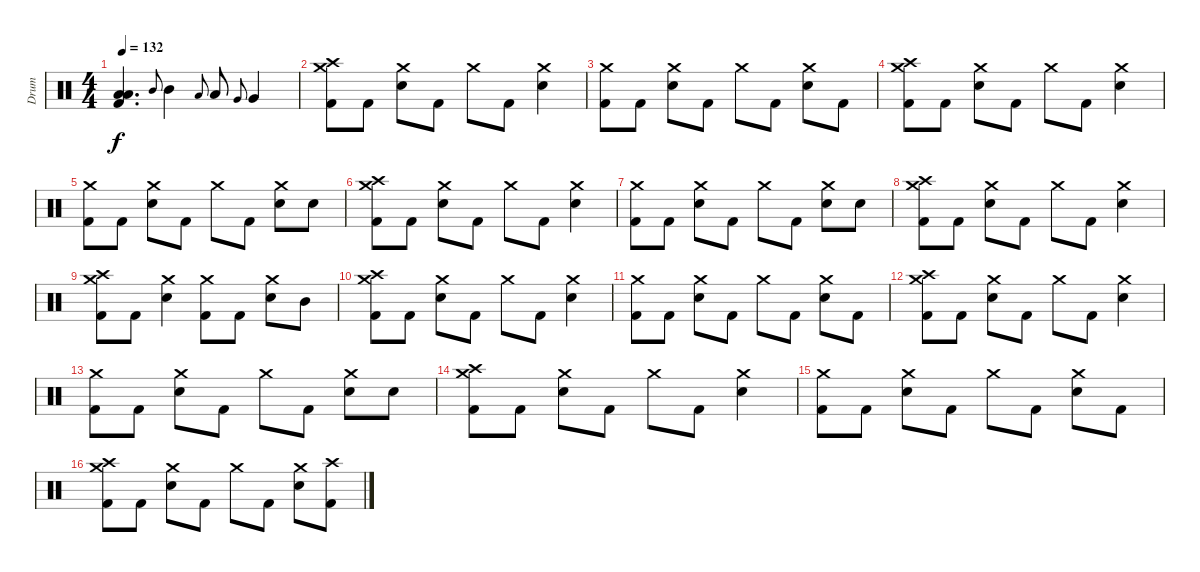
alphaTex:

\track ("Drum" "Drum") {instrument percussion}
\staff {score}
\articulation defaults
\ts (4 4)
\tempo 132
\clef neutral
\ks c
("Low Floor Tom (hit)" "Low Floor Tom (hit)" "Kick (hit) 2").4{d dy f} "Mid Tom (hit)".8{gr onbeat} "Mid Tom (hit)".4 "Low Tom (hit)".8{gr onbeat} "Low Tom (hit)".8 "Very Low Tom (hit)".8{gr onbeat} "Very Low Tom (hit)".4 |
("Crash medium (hit)" "Crash high (hit)" "Kick (hit) 2").8 "Kick (hit) 2".8 ("Crash medium (hit)" "Snare (hit) 2").8 "Kick (hit) 2".8 "Crash medium (hit)".8 "Kick (hit) 2".8 ("Crash medium (hit)" "Snare (hit) 2").4 |
("Crash medium (hit)" "Kick (hit) 2").8 "Kick (hit) 2".8 ("Crash medium (hit)" "Snare (hit) 2").8 "Kick (hit) 2".8 "Crash medium (hit)".8 "Kick (hit) 2".8 ("Crash medium (hit)" "Snare (hit) 2").8 "Kick (hit) 2".8 |
("Crash medium (hit)" "Crash high (hit)" "Kick (hit) 2").8 "Kick (hit) 2".8 ("Crash medium (hit)" "Snare (hit) 2").8 "Kick (hit) 2".8 "Crash medium (hit)".8 "Kick (hit) 2".8 ("Crash medium (hit)" "Snare (hit) 2").4 |
("Crash medium (hit)" "Kick (hit) 2").8 "Kick (hit) 2".8 ("Crash medium (hit)" "Snare (hit) 2").8 "Kick (hit) 2".8 "Crash medium (hit)".8 "Kick (hit) 2".8 ("Crash medium (hit)" "Snare (hit) 2").8 "Snare (hit) 2".8 |
("Crash medium (hit)" "Crash high (hit)" "Kick (hit) 2").8 "Kick (hit) 2".8 ("Crash medium (hit)" "Snare (hit) 2").8 "Kick (hit) 2".8 "Crash medium (hit)".8 "Kick (hit) 2".8 ("Crash medium (hit)" "Snare (hit) 2").4 |
("Crash medium (hit)" "Kick (hit) 2").8 "Kick (hit) 2".8 ("Crash medium (hit)" "Snare (hit) 2").8 "Kick (hit) 2".8 "Crash medium (hit)".8 "Kick (hit) 2".8 ("Crash medium (hit)" "Snare (hit) 2").8 "Snare (hit) 2".8 |
("Crash medium (hit)" "Crash high (hit)" "Kick (hit) 2").8 "Kick (hit) 2".8 ("Crash medium (hit)" "Snare (hit) 2").8 "Kick (hit) 2".8 "Crash medium (hit)".8 "Kick (hit) 2".8 ("Crash medium (hit)" "Snare (hit) 2").4 |
("Crash medium (hit)" "Crash high (hit)" "Kick (hit) 2").8 "Kick (hit) 2".8 ("Crash medium (hit)" "Snare (hit) 2").4 ("Crash medium (hit)" "Kick (hit) 2").8 "Kick (hit) 2".8 ("Crash medium (hit)" "Snare (hit) 2").8 "Mid Tom (hit)".8 |
("Crash medium (hit)" "Crash high (hit)" "Kick (hit) 2").8 "Kick (hit) 2".8 ("Crash medium (hit)" "Snare (hit) 2").8 "Kick (hit) 2".8 "Crash medium (hit)".8 "Kick (hit) 2".8 ("Crash medium (hit)" "Snare (hit) 2").4 |
("Crash medium (hit)" "Kick (hit) 2").8 "Kick (hit) 2".8 ("Crash medium (hit)" "Snare (hit) 2").8 "Kick (hit) 2".8 "Crash medium (hit)".8 "Kick (hit) 2".8 ("Crash medium (hit)" "Snare (hit) 2").8 "Kick (hit) 2".8 |
("Crash medium (hit)" "Crash high (hit)" "Kick (hit) 2").8 "Kick (hit) 2".8 ("Crash medium (hit)" "Snare (hit) 2").8 "Kick (hit) 2".8 "Crash medium (hit)".8 "Kick (hit) 2".8 ("Crash medium (hit)" "Snare (hit) 2").4 |
("Crash medium (hit)" "Kick (hit) 2").8 "Kick (hit) 2".8 ("Crash medium (hit)" "Snare (hit) 2").8 "Kick (hit) 2".8 "Crash medium (hit)".8 "Kick (hit) 2".8 ("Crash medium (hit)" "Snare (hit) 2").8 "Snare (hit) 2".8 |
("Crash medium (hit)" "Crash high (hit)" "Kick (hit) 2").8 "Kick (hit) 2".8 ("Crash medium (hit)" "Snare (hit) 2").8 "Kick (hit) 2".8 "Crash medium (hit)".8 "Kick (hit) 2".8 ("Crash medium (hit)" "Snare (hit) 2").4 |
("Crash medium (hit)" "Kick (hit) 2").8 "Kick (hit) 2".8 ("Crash medium (hit)" "Snare (hit) 2").8 "Kick (hit) 2".8 "Crash medium (hit)".8 "Kick (hit) 2".8 ("Crash medium (hit)" "Snare (hit) 2").8 "Kick (hit) 2".8 |
("Crash medium (hit)" "Crash high (hit)" "Kick (hit) 2").8 "Kick (hit) 2".8 ("Crash medium (hit)" "Snare (hit) 2").8 "Kick (hit) 2".8 "Crash medium (hit)".8 "Kick (hit) 2".8 ("Crash medium (hit)" "Snare (hit) 2").8 ("Crash high (hit)" "Kick (hit) 2").8
